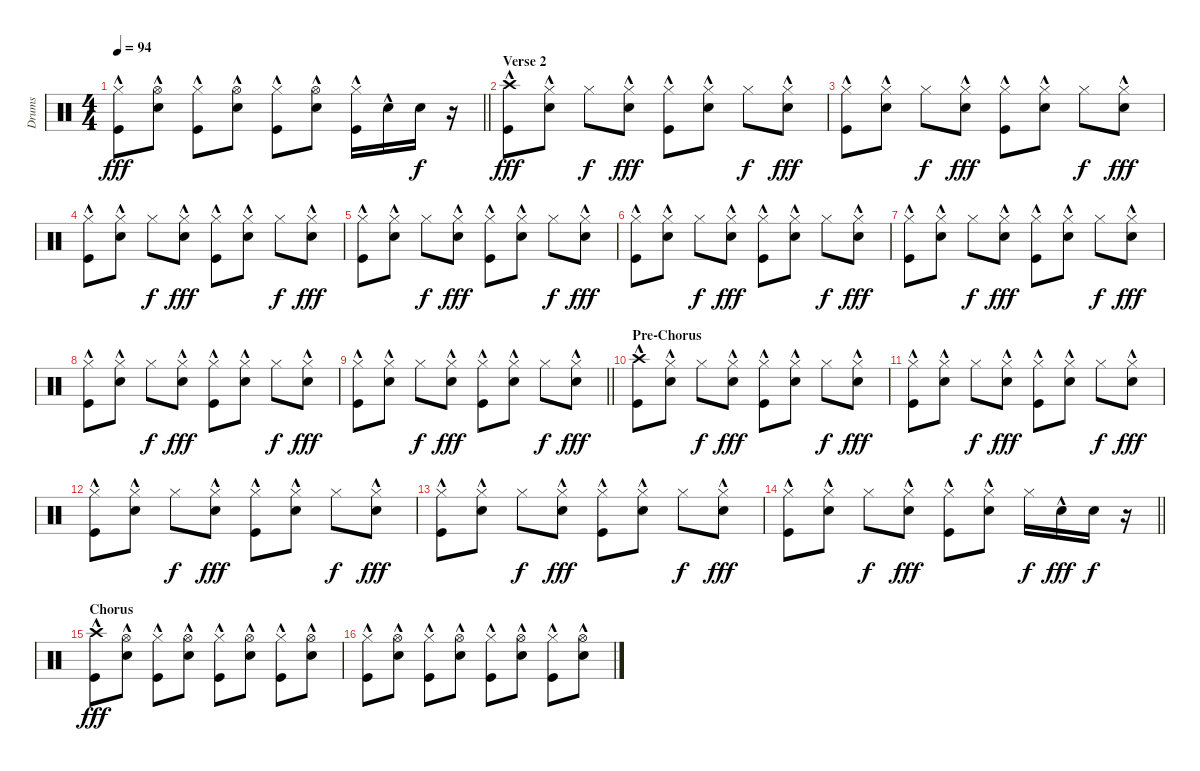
\track ("Drums" "Drums") {instrument percussion}
\staff {score}
\articulation defaults
\ts (4 4)
\tempo 94
\clef neutral
\barLineRight lightlight
\ks c
("Hi-Hat (closed)" "Kick (hit)"{hac}).8{dy fff} ("Hi-Hat (open)" "Snare (hit) 2"{hac}).8 ("Hi-Hat (closed)" "Kick (hit)"{hac}).8 ("Hi-Hat (open)" "Snare (hit) 2"{hac}).8 ("Hi-Hat (closed)" "Kick (hit)"{hac}).8 ("Hi-Hat (open)" "Snare (hit) 2"{hac}).8 ("Hi-Hat (closed)" "Kick (hit)"{hac}).16 "Snare (hit) 2"{hac}.16 "Snare (hit) 2".16{dy f} r.16 |
\section ("" "Verse 2")
("Crash high (hit)" "Kick (hit)"{hac}).8{dy fff} ("Hi-Hat (closed)" "Snare (hit) 2"{hac}).8 "Hi-Hat (closed)".8{dy f} ("Hi-Hat (closed)" "Snare (hit) 2"{hac}).8{dy fff} ("Hi-Hat (closed)" "Kick (hit)"{hac}).8 ("Hi-Hat (closed)" "Snare (hit) 2"{hac}).8 "Hi-Hat (closed)".8{dy f} ("Hi-Hat (closed)" "Snare (hit) 2"{hac}).8{dy fff} |
("Hi-Hat (closed)" "Kick (hit)"{hac}).8 ("Hi-Hat (closed)" "Snare (hit) 2"{hac}).8 "Hi-Hat (closed)".8{dy f} ("Hi-Hat (closed)" "Snare (hit) 2"{hac}).8{dy fff} ("Hi-Hat (closed)" "Kick (hit)"{hac}).8 ("Hi-Hat (closed)" "Snare (hit) 2"{hac}).8 "Hi-Hat (closed)".8{dy f} ("Hi-Hat (closed)" "Snare (hit) 2"{hac}).8{dy fff} |
("Hi-Hat (closed)" "Kick (hit)"{hac}).8 ("Hi-Hat (closed)" "Snare (hit) 2"{hac}).8 "Hi-Hat (closed)".8{dy f} ("Hi-Hat (closed)" "Snare (hit) 2"{hac}).8{dy fff} ("Hi-Hat (closed)" "Kick (hit)"{hac}).8 ("Hi-Hat (closed)" "Snare (hit) 2"{hac}).8 "Hi-Hat (closed)".8{dy f} ("Hi-Hat (closed)" "Snare (hit) 2"{hac}).8{dy fff} |
("Hi-Hat (closed)" "Kick (hit)"{hac}).8 ("Hi-Hat (closed)" "Snare (hit) 2"{hac}).8 "Hi-Hat (closed)".8{dy f} ("Hi-Hat (closed)" "Snare (hit) 2"{hac}).8{dy fff} ("Hi-Hat (closed)" "Kick (hit)"{hac}).8 ("Hi-Hat (closed)" "Snare (hit) 2"{hac}).8 "Hi-Hat (closed)".8{dy f} ("Hi-Hat (closed)" "Snare (hit) 2"{hac}).8{dy fff} |
("Hi-Hat (closed)" "Kick (hit)"{hac}).8 ("Hi-Hat (closed)" "Snare (hit) 2"{hac}).8 "Hi-Hat (closed)".8{dy f} ("Hi-Hat (closed)" "Snare (hit) 2"{hac}).8{dy fff} ("Hi-Hat (closed)" "Kick (hit)"{hac}).8 ("Hi-Hat (closed)" "Snare (hit) 2"{hac}).8 "Hi-Hat (closed)".8{dy f} ("Hi-Hat (closed)" "Snare (hit) 2"{hac}).8{dy fff} |
("Hi-Hat (closed)" "Kick (hit)"{hac}).8 ("Hi-Hat (closed)" "Snare (hit) 2"{hac}).8 "Hi-Hat (closed)".8{dy f} ("Hi-Hat (closed)" "Snare (hit) 2"{hac}).8{dy fff} ("Hi-Hat (closed)" "Kick (hit)"{hac}).8 ("Hi-Hat (closed)" "Snare (hit) 2"{hac}).8 "Hi-Hat (closed)".8{dy f} ("Hi-Hat (closed)" "Snare (hit) 2"{hac}).8{dy fff} |
("Hi-Hat (closed)" "Kick (hit)"{hac}).8 ("Hi-Hat (closed)" "Snare (hit) 2"{hac}).8 "Hi-Hat (closed)".8{dy f} ("Hi-Hat (closed)" "Snare (hit) 2"{hac}).8{dy fff} ("Hi-Hat (closed)" "Kick (hit)"{hac}).8 ("Hi-Hat (closed)" "Snare (hit) 2"{hac}).8 "Hi-Hat (closed)".8{dy f} ("Hi-Hat (closed)" "Snare (hit) 2"{hac}).8{dy fff} |
\barLineRight lightlight
("Hi-Hat (closed)" "Kick (hit)"{hac}).8 ("Hi-Hat (closed)" "Snare (hit) 2"{hac}).8 "Hi-Hat (closed)".8{dy f} ("Hi-Hat (closed)" "Snare (hit) 2"{hac}).8{dy fff} ("Hi-Hat (closed)" "Kick (hit)"{hac}).8 ("Hi-Hat (closed)" "Snare (hit) 2"{hac}).8 "Hi-Hat (closed)".8{dy f} ("Hi-Hat (closed)" "Snare (hit) 2"{hac}).8{dy fff} |
\section ("" "Pre-Chorus")
("Crash high (hit)" "Kick (hit)"{hac}).8 ("Hi-Hat (closed)" "Snare (hit) 2"{hac}).8 "Hi-Hat (closed)".8{dy f} ("Hi-Hat (closed)" "Snare (hit) 2"{hac}).8{dy fff} ("Hi-Hat (closed)" "Kick (hit)"{hac}).8 ("Hi-Hat (closed)" "Snare (hit) 2"{hac}).8 "Hi-Hat (closed)".8{dy f} ("Hi-Hat (closed)" "Snare (hit) 2"{hac}).8{dy fff} |
("Hi-Hat (closed)" "Kick (hit)"{hac}).8 ("Hi-Hat (closed)" "Snare (hit) 2"{hac}).8 "Hi-Hat (closed)".8{dy f} ("Hi-Hat (closed)" "Snare (hit) 2"{hac}).8{dy fff} ("Hi-Hat (closed)" "Kick (hit)"{hac}).8 ("Hi-Hat (closed)" "Snare (hit) 2"{hac}).8 "Hi-Hat (closed)".8{dy f} ("Hi-Hat (closed)" "Snare (hit) 2"{hac}).8{dy fff} |
("Hi-Hat (closed)" "Kick (hit)"{hac}).8 ("Hi-Hat (closed)" "Snare (hit) 2"{hac}).8 "Hi-Hat (closed)".8{dy f} ("Hi-Hat (closed)" "Snare (hit) 2"{hac}).8{dy fff} ("Hi-Hat (closed)" "Kick (hit)"{hac}).8 ("Hi-Hat (closed)" "Snare (hit) 2"{hac}).8 "Hi-Hat (closed)".8{dy f} ("Hi-Hat (closed)" "Snare (hit) 2"{hac}).8{dy fff} |
("Hi-Hat (closed)" "Kick (hit)"{hac}).8 ("Hi-Hat (closed)" "Snare (hit) 2"{hac}).8 "Hi-Hat (closed)".8{dy f} ("Hi-Hat (closed)" "Snare (hit) 2"{hac}).8{dy fff} ("Hi-Hat (closed)" "Kick (hit)"{hac}).8 ("Hi-Hat (closed)" "Snare (hit) 2"{hac}).8 "Hi-Hat (closed)".8{dy f} ("Hi-Hat (closed)" "Snare (hit) 2"{hac}).8{dy fff} |
\barLineRight lightlight
("Hi-Hat (closed)" "Kick (hit)"{hac}).8 ("Hi-Hat (closed)" "Snare (hit) 2"{hac}).8 "Hi-Hat (closed)".8{dy f} ("Hi-Hat (closed)" "Snare (hit) 2"{hac}).8{dy fff} ("Hi-Hat (closed)" "Kick (hit)"{hac}).8 ("Hi-Hat (closed)" "Snare (hit) 2"{hac}).8 "Hi-Hat (closed)".16{dy f} "Snare (hit) 2"{hac}.16{dy fff} "Snare (hit) 2".16{dy f} r.16 |
\section ("" "Chorus")
("Crash high (hit)" "Kick (hit)"{hac}).8{dy fff} ("Hi-Hat (open)" "Snare (hit) 2"{hac}).8 ("Hi-Hat (closed)" "Kick (hit)"{hac}).8 ("Hi-Hat (open)" "Snare (hit) 2"{hac}).8 ("Hi-Hat (closed)" "Kick (hit)"{hac}).8 ("Hi-Hat (open)" "Snare (hit) 2"{hac}).8 ("Hi-Hat (closed)" "Kick (hit)"{hac}).8 ("Hi-Hat (open)" "Snare (hit) 2"{hac}).8 |
("Hi-Hat (closed)" "Kick (hit)"{hac}).8 ("Hi-Hat (open)" "Snare (hit) 2"{hac}).8 ("Hi-Hat (closed)" "Kick (hit)"{hac}).8 ("Hi-Hat (open)" "Snare (hit) 2"{hac}).8 ("Hi-Hat (closed)" "Kick (hit)"{hac}).8 ("Hi-Hat (open)" "Snare (hit) 2"{hac}).8 ("Hi-Hat (closed)" "Kick (hit)"{hac}).8 ("Hi-Hat (open)" "Snare (hit) 2"{hac}).8
